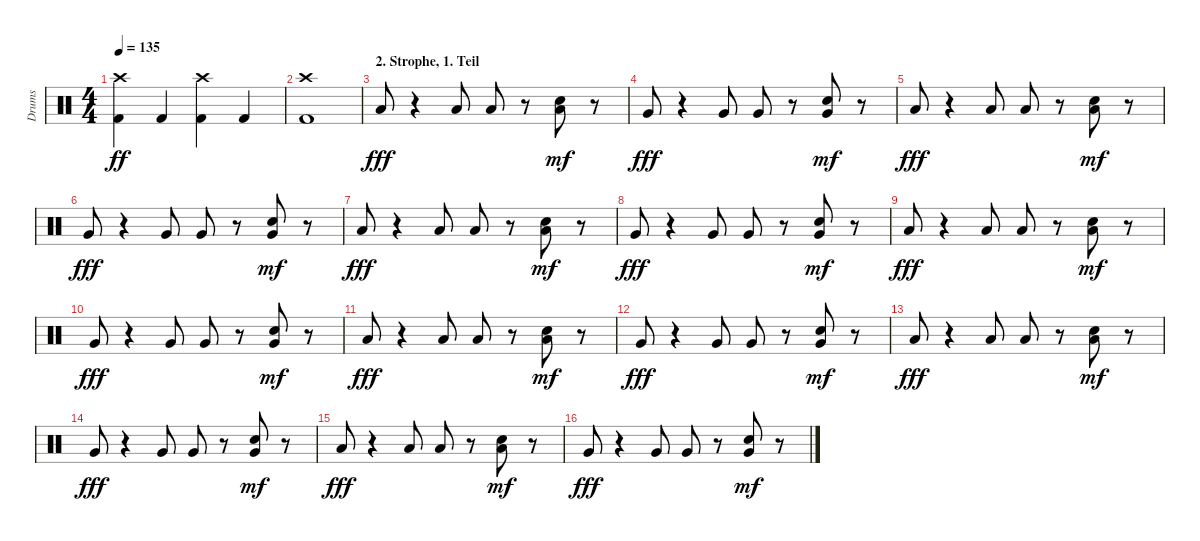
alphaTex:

\track ("Drums" "Drums") {instrument percussion}
\staff {score}
\articulation defaults
\ts (4 4)
\tempo 135
\clef neutral
\ks c
("Crash high (hit)" "Kick (hit) 2").4{dy ff} "Kick (hit) 2".4 ("Crash high (hit)" "Kick (hit) 2").4 "Kick (hit) 2".4 |
("Crash high (hit)" "Kick (hit) 2").1 |
\section ("" "2. Strophe, 1. Teil")
"Low Floor Tom (hit)".8{dy fff} r.4 "Low Floor Tom (hit)".8 "Low Floor Tom (hit)".8 r.8 ("Electric Snare (hit)" "Low Floor Tom (hit)").8{dy mf} r.8 |
"Very Low Tom (hit)".8{dy fff} r.4 "Very Low Tom (hit)".8 "Very Low Tom (hit)".8 r.8 ("Electric Snare (hit)" "Very Low Tom (hit)").8{dy mf} r.8 |
"Low Floor Tom (hit)".8{dy fff} r.4 "Low Floor Tom (hit)".8 "Low Floor Tom (hit)".8 r.8 ("Electric Snare (hit)" "Low Floor Tom (hit)").8{dy mf} r.8 |
"Very Low Tom (hit)".8{dy fff} r.4 "Very Low Tom (hit)".8 "Very Low Tom (hit)".8 r.8 ("Electric Snare (hit)" "Very Low Tom (hit)").8{dy mf} r.8 |
"Low Floor Tom (hit)".8{dy fff} r.4 "Low Floor Tom (hit)".8 "Low Floor Tom (hit)".8 r.8 ("Electric Snare (hit)" "Low Floor Tom (hit)").8{dy mf} r.8 |
"Very Low Tom (hit)".8{dy fff} r.4 "Very Low Tom (hit)".8 "Very Low Tom (hit)".8 r.8 ("Electric Snare (hit)" "Very Low Tom (hit)").8{dy mf} r.8 |
"Low Floor Tom (hit)".8{dy fff} r.4 "Low Floor Tom (hit)".8 "Low Floor Tom (hit)".8 r.8 ("Electric Snare (hit)" "Low Floor Tom (hit)").8{dy mf} r.8 |
"Very Low Tom (hit)".8{dy fff} r.4 "Very Low Tom (hit)".8 "Very Low Tom (hit)".8 r.8 ("Electric Snare (hit)" "Very Low Tom (hit)").8{dy mf} r.8 |
"Low Floor Tom (hit)".8{dy fff} r.4 "Low Floor Tom (hit)".8 "Low Floor Tom (hit)".8 r.8 ("Electric Snare (hit)" "Low Floor Tom (hit)").8{dy mf} r.8 |
"Very Low Tom (hit)".8{dy fff} r.4 "Very Low Tom (hit)".8 "Very Low Tom (hit)".8 r.8 ("Electric Snare (hit)" "Very Low Tom (hit)").8{dy mf} r.8 |
"Low Floor Tom (hit)".8{dy fff} r.4 "Low Floor Tom (hit)".8 "Low Floor Tom (hit)".8 r.8 ("Electric Snare (hit)" "Low Floor Tom (hit)").8{dy mf} r.8 |
"Very Low Tom (hit)".8{dy fff} r.4 "Very Low Tom (hit)".8 "Very Low Tom (hit)".8 r.8 ("Electric Snare (hit)" "Very Low Tom (hit)").8{dy mf} r.8 |
"Low Floor Tom (hit)".8{dy fff} r.4 "Low Floor Tom (hit)".8 "Low Floor Tom (hit)".8 r.8 ("Electric Snare (hit)" "Low Floor Tom (hit)").8{dy mf} r.8 |
"Very Low Tom (hit)".8{dy fff} r.4 "Very Low Tom (hit)".8 "Very Low Tom (hit)".8 r.8 ("Electric Snare (hit)" "Very Low Tom (hit)").8{dy mf} r.8
